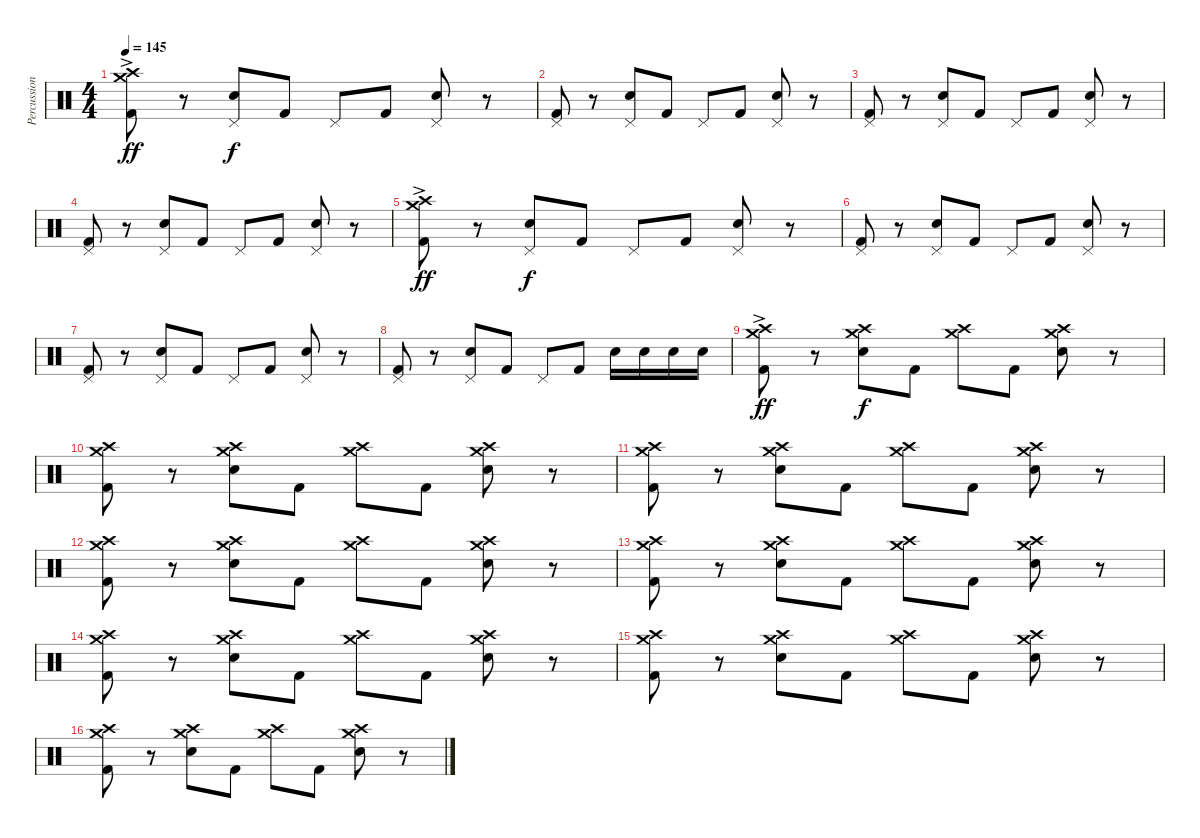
\track ("Percussion" "Percussion") {instrument percussion}
\staff {score}
\articulation defaults
\ts (4 4)
\tempo 145
\clef neutral
\ks c
("Crash high (hit)"{ac} "Crash medium (hit)"{ac} "Kick (hit) 2"{ac}).8{dy ff} r.8 ("Pedal Hi-Hat (hit)" "Electric Snare (hit)").8{dy f} "Kick (hit) 2".8 "Pedal Hi-Hat (hit)".8 "Kick (hit) 2".8 ("Pedal Hi-Hat (hit)" "Electric Snare (hit)").8 r.8 |
("Pedal Hi-Hat (hit)" "Kick (hit) 2").8 r.8 ("Pedal Hi-Hat (hit)" "Electric Snare (hit)").8 "Kick (hit) 2".8 "Pedal Hi-Hat (hit)".8 "Kick (hit) 2".8 ("Pedal Hi-Hat (hit)" "Electric Snare (hit)").8 r.8 |
("Pedal Hi-Hat (hit)" "Kick (hit) 2").8 r.8 ("Pedal Hi-Hat (hit)" "Electric Snare (hit)").8 "Kick (hit) 2".8 "Pedal Hi-Hat (hit)".8 "Kick (hit) 2".8 ("Pedal Hi-Hat (hit)" "Electric Snare (hit)").8 r.8 |
("Pedal Hi-Hat (hit)" "Kick (hit) 2").8 r.8 ("Pedal Hi-Hat (hit)" "Electric Snare (hit)").8 "Kick (hit) 2".8 "Pedal Hi-Hat (hit)".8 "Kick (hit) 2".8 ("Pedal Hi-Hat (hit)" "Electric Snare (hit)").8 r.8 |
("Crash high (hit)"{ac} "Crash medium (hit)"{ac} "Kick (hit) 2"{ac}).8{dy ff} r.8 ("Pedal Hi-Hat (hit)" "Electric Snare (hit)").8{dy f} "Kick (hit) 2".8 "Pedal Hi-Hat (hit)".8 "Kick (hit) 2".8 ("Pedal Hi-Hat (hit)" "Electric Snare (hit)").8 r.8 |
("Pedal Hi-Hat (hit)" "Kick (hit) 2").8 r.8 ("Pedal Hi-Hat (hit)" "Electric Snare (hit)").8 "Kick (hit) 2".8 "Pedal Hi-Hat (hit)".8 "Kick (hit) 2".8 ("Pedal Hi-Hat (hit)" "Electric Snare (hit)").8 r.8 |
("Pedal Hi-Hat (hit)" "Kick (hit) 2").8 r.8 ("Pedal Hi-Hat (hit)" "Electric Snare (hit)").8 "Kick (hit) 2".8 "Pedal Hi-Hat (hit)".8 "Kick (hit) 2".8 ("Pedal Hi-Hat (hit)" "Electric Snare (hit)").8 r.8 |
("Pedal Hi-Hat (hit)" "Kick (hit) 2").8 r.8 ("Pedal Hi-Hat (hit)" "Electric Snare (hit)").8 "Kick (hit) 2".8 "Pedal Hi-Hat (hit)".8 "Kick (hit) 2".8 "Electric Snare (hit)".16 "Electric Snare (hit)".16 "Electric Snare (hit)".16 "Electric Snare (hit)".16 |
("Crash high (hit)"{ac} "Crash medium (hit)"{ac} "Kick (hit) 2").8{dy ff} r.8 ("Crash high (hit)" "Crash medium (hit)" "Electric Snare (hit)").8{dy f} "Kick (hit) 2".8 ("Crash high (hit)" "Crash medium (hit)").8 "Kick (hit) 2".8 ("Crash high (hit)" "Crash medium (hit)" "Electric Snare (hit)").8 r.8 |
("Crash high (hit)" "Crash medium (hit)" "Kick (hit) 2").8 r.8 ("Crash high (hit)" "Crash medium (hit)" "Electric Snare (hit)").8 "Kick (hit) 2".8 ("Crash high (hit)" "Crash medium (hit)").8 "Kick (hit) 2".8 ("Crash high (hit)" "Crash medium (hit)" "Electric Snare (hit)").8 r.8 |
("Crash high (hit)" "Crash medium (hit)" "Kick (hit) 2").8 r.8 ("Crash high (hit)" "Crash medium (hit)" "Electric Snare (hit)").8 "Kick (hit) 2".8 ("Crash high (hit)" "Crash medium (hit)").8 "Kick (hit) 2".8 ("Crash high (hit)" "Crash medium (hit)" "Electric Snare (hit)").8 r.8 |
("Crash high (hit)" "Crash medium (hit)" "Kick (hit) 2").8 r.8 ("Crash high (hit)" "Crash medium (hit)" "Electric Snare (hit)").8 "Kick (hit) 2".8 ("Crash high (hit)" "Crash medium (hit)").8 "Kick (hit) 2".8 ("Crash high (hit)" "Crash medium (hit)" "Electric Snare (hit)").8 r.8 |
("Crash high (hit)" "Crash medium (hit)" "Kick (hit) 2").8 r.8 ("Crash high (hit)" "Crash medium (hit)" "Electric Snare (hit)").8 "Kick (hit) 2".8 ("Crash high (hit)" "Crash medium (hit)").8 "Kick (hit) 2".8 ("Crash high (hit)" "Crash medium (hit)" "Electric Snare (hit)").8 r.8 |
("Crash high (hit)" "Crash medium (hit)" "Kick (hit) 2").8 r.8 ("Crash high (hit)" "Crash medium (hit)" "Electric Snare (hit)").8 "Kick (hit) 2".8 ("Crash high (hit)" "Crash medium (hit)").8 "Kick (hit) 2".8 ("Crash high (hit)" "Crash medium (hit)" "Electric Snare (hit)").8 r.8 |
("Crash high (hit)" "Crash medium (hit)" "Kick (hit) 2").8 r.8 ("Crash high (hit)" "Crash medium (hit)" "Electric Snare (hit)").8 "Kick (hit) 2".8 ("Crash high (hit)" "Crash medium (hit)").8 "Kick (hit) 2".8 ("Crash high (hit)" "Crash medium (hit)" "Electric Snare (hit)").8 r.8 |
("Crash high (hit)" "Crash medium (hit)" "Kick (hit) 2").8 r.8 ("Crash high (hit)" "Crash medium (hit)" "Electric Snare (hit)").8 "Kick (hit) 2".8 ("Crash high (hit)" "Crash medium (hit)").8 "Kick (hit) 2".8 ("Crash high (hit)" "Crash medium (hit)" "Electric Snare (hit)").8 r.8
